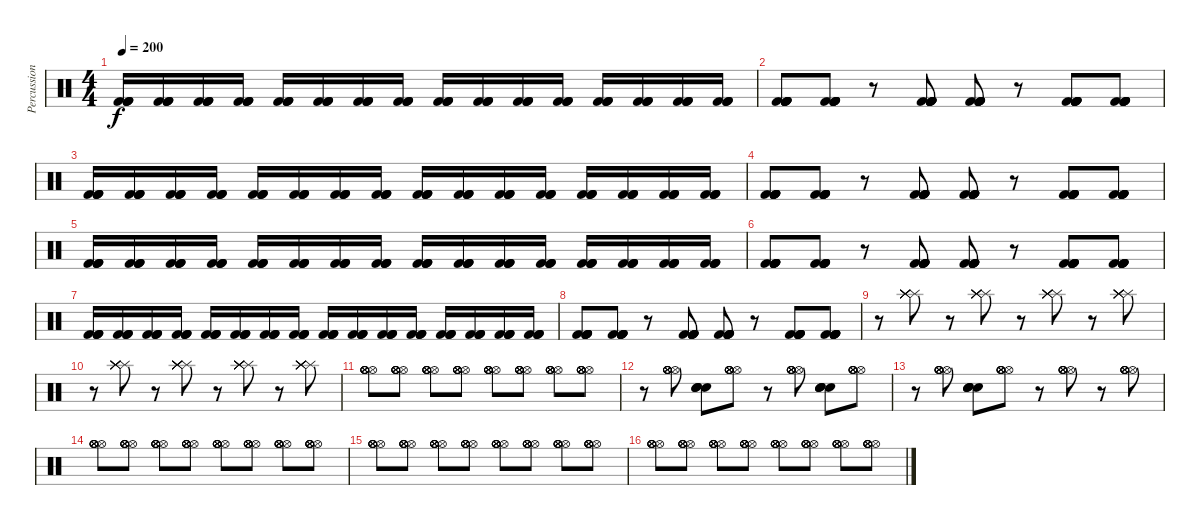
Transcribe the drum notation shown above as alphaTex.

\track ("Percussion" "Percussion") {instrument percussion}
\staff {score}
\articulation defaults
\ts (4 4)
\tempo 200
\clef neutral
\ks c
("Kick (hit) 2" "Kick (hit) 2" "Kick (hit) 2" "Kick (hit) 2").16{dy f} ("Kick (hit) 2" "Kick (hit) 2" "Kick (hit) 2" "Kick (hit) 2").16 ("Kick (hit) 2" "Kick (hit) 2" "Kick (hit) 2" "Kick (hit) 2").16 ("Kick (hit) 2" "Kick (hit) 2" "Kick (hit) 2" "Kick (hit) 2").16 ("Kick (hit) 2" "Kick (hit) 2" "Kick (hit) 2" "Kick (hit) 2").16 ("Kick (hit) 2" "Kick (hit) 2" "Kick (hit) 2" "Kick (hit) 2").16 ("Kick (hit) 2" "Kick (hit) 2" "Kick (hit) 2" "Kick (hit) 2").16 ("Kick (hit) 2" "Kick (hit) 2" "Kick (hit) 2" "Kick (hit) 2").16 ("Kick (hit) 2" "Kick (hit) 2" "Kick (hit) 2" "Kick (hit) 2").16 ("Kick (hit) 2" "Kick (hit) 2" "Kick (hit) 2" "Kick (hit) 2").16 ("Kick (hit) 2" "Kick (hit) 2" "Kick (hit) 2" "Kick (hit) 2").16 ("Kick (hit) 2" "Kick (hit) 2" "Kick (hit) 2" "Kick (hit) 2").16 ("Kick (hit) 2" "Kick (hit) 2" "Kick (hit) 2" "Kick (hit) 2").16 ("Kick (hit) 2" "Kick (hit) 2" "Kick (hit) 2" "Kick (hit) 2").16 ("Kick (hit) 2" "Kick (hit) 2" "Kick (hit) 2" "Kick (hit) 2").16 ("Kick (hit) 2" "Kick (hit) 2" "Kick (hit) 2" "Kick (hit) 2").16 |
("Kick (hit) 2" "Kick (hit) 2" "Kick (hit) 2" "Kick (hit) 2" "Kick (hit) 2" "Kick (hit) 2").8 ("Kick (hit) 2" "Kick (hit) 2" "Kick (hit) 2" "Kick (hit) 2" "Kick (hit) 2" "Kick (hit) 2").8 r.8 ("Kick (hit) 2" "Kick (hit) 2" "Kick (hit) 2" "Kick (hit) 2" "Kick (hit) 2" "Kick (hit) 2").8 ("Kick (hit) 2" "Kick (hit) 2" "Kick (hit) 2" "Kick (hit) 2" "Kick (hit) 2" "Kick (hit) 2").8 r.8 ("Kick (hit) 2" "Kick (hit) 2" "Kick (hit) 2" "Kick (hit) 2" "Kick (hit) 2" "Kick (hit) 2").8 ("Kick (hit) 2" "Kick (hit) 2" "Kick (hit) 2" "Kick (hit) 2" "Kick (hit) 2" "Kick (hit) 2").8 |
("Kick (hit) 2" "Kick (hit) 2" "Kick (hit) 2" "Kick (hit) 2").16 ("Kick (hit) 2" "Kick (hit) 2" "Kick (hit) 2" "Kick (hit) 2").16 ("Kick (hit) 2" "Kick (hit) 2" "Kick (hit) 2" "Kick (hit) 2").16 ("Kick (hit) 2" "Kick (hit) 2" "Kick (hit) 2" "Kick (hit) 2").16 ("Kick (hit) 2" "Kick (hit) 2" "Kick (hit) 2" "Kick (hit) 2").16 ("Kick (hit) 2" "Kick (hit) 2" "Kick (hit) 2" "Kick (hit) 2").16 ("Kick (hit) 2" "Kick (hit) 2" "Kick (hit) 2" "Kick (hit) 2").16 ("Kick (hit) 2" "Kick (hit) 2" "Kick (hit) 2" "Kick (hit) 2").16 ("Kick (hit) 2" "Kick (hit) 2" "Kick (hit) 2" "Kick (hit) 2").16 ("Kick (hit) 2" "Kick (hit) 2" "Kick (hit) 2" "Kick (hit) 2").16 ("Kick (hit) 2" "Kick (hit) 2" "Kick (hit) 2" "Kick (hit) 2").16 ("Kick (hit) 2" "Kick (hit) 2" "Kick (hit) 2" "Kick (hit) 2").16 ("Kick (hit) 2" "Kick (hit) 2" "Kick (hit) 2" "Kick (hit) 2").16 ("Kick (hit) 2" "Kick (hit) 2" "Kick (hit) 2" "Kick (hit) 2").16 ("Kick (hit) 2" "Kick (hit) 2" "Kick (hit) 2" "Kick (hit) 2").16 ("Kick (hit) 2" "Kick (hit) 2" "Kick (hit) 2" "Kick (hit) 2").16 |
("Kick (hit) 2" "Kick (hit) 2" "Kick (hit) 2" "Kick (hit) 2" "Kick (hit) 2" "Kick (hit) 2").8 ("Kick (hit) 2" "Kick (hit) 2" "Kick (hit) 2" "Kick (hit) 2" "Kick (hit) 2" "Kick (hit) 2").8 r.8 ("Kick (hit) 2" "Kick (hit) 2" "Kick (hit) 2" "Kick (hit) 2" "Kick (hit) 2" "Kick (hit) 2").8 ("Kick (hit) 2" "Kick (hit) 2" "Kick (hit) 2" "Kick (hit) 2" "Kick (hit) 2" "Kick (hit) 2").8 r.8 ("Kick (hit) 2" "Kick (hit) 2" "Kick (hit) 2" "Kick (hit) 2" "Kick (hit) 2" "Kick (hit) 2").8 ("Kick (hit) 2" "Kick (hit) 2" "Kick (hit) 2" "Kick (hit) 2" "Kick (hit) 2" "Kick (hit) 2").8 |
("Kick (hit) 2" "Kick (hit) 2" "Kick (hit) 2" "Kick (hit) 2").16 ("Kick (hit) 2" "Kick (hit) 2" "Kick (hit) 2" "Kick (hit) 2").16 ("Kick (hit) 2" "Kick (hit) 2" "Kick (hit) 2" "Kick (hit) 2").16 ("Kick (hit) 2" "Kick (hit) 2" "Kick (hit) 2" "Kick (hit) 2").16 ("Kick (hit) 2" "Kick (hit) 2" "Kick (hit) 2" "Kick (hit) 2").16 ("Kick (hit) 2" "Kick (hit) 2" "Kick (hit) 2" "Kick (hit) 2").16 ("Kick (hit) 2" "Kick (hit) 2" "Kick (hit) 2" "Kick (hit) 2").16 ("Kick (hit) 2" "Kick (hit) 2" "Kick (hit) 2" "Kick (hit) 2").16 ("Kick (hit) 2" "Kick (hit) 2" "Kick (hit) 2" "Kick (hit) 2").16 ("Kick (hit) 2" "Kick (hit) 2" "Kick (hit) 2" "Kick (hit) 2").16 ("Kick (hit) 2" "Kick (hit) 2" "Kick (hit) 2" "Kick (hit) 2").16 ("Kick (hit) 2" "Kick (hit) 2" "Kick (hit) 2" "Kick (hit) 2").16 ("Kick (hit) 2" "Kick (hit) 2" "Kick (hit) 2" "Kick (hit) 2").16 ("Kick (hit) 2" "Kick (hit) 2" "Kick (hit) 2" "Kick (hit) 2").16 ("Kick (hit) 2" "Kick (hit) 2" "Kick (hit) 2" "Kick (hit) 2").16 ("Kick (hit) 2" "Kick (hit) 2" "Kick (hit) 2" "Kick (hit) 2").16 |
("Kick (hit) 2" "Kick (hit) 2" "Kick (hit) 2" "Kick (hit) 2" "Kick (hit) 2" "Kick (hit) 2").8 ("Kick (hit) 2" "Kick (hit) 2" "Kick (hit) 2" "Kick (hit) 2" "Kick (hit) 2" "Kick (hit) 2").8 r.8 ("Kick (hit) 2" "Kick (hit) 2" "Kick (hit) 2" "Kick (hit) 2" "Kick (hit) 2" "Kick (hit) 2").8 ("Kick (hit) 2" "Kick (hit) 2" "Kick (hit) 2" "Kick (hit) 2" "Kick (hit) 2" "Kick (hit) 2").8 r.8 ("Kick (hit) 2" "Kick (hit) 2" "Kick (hit) 2" "Kick (hit) 2" "Kick (hit) 2" "Kick (hit) 2").8 ("Kick (hit) 2" "Kick (hit) 2" "Kick (hit) 2" "Kick (hit) 2" "Kick (hit) 2" "Kick (hit) 2").8 |
("Kick (hit) 2" "Kick (hit) 2" "Kick (hit) 2" "Kick (hit) 2").16 ("Kick (hit) 2" "Kick (hit) 2" "Kick (hit) 2" "Kick (hit) 2").16 ("Kick (hit) 2" "Kick (hit) 2" "Kick (hit) 2" "Kick (hit) 2").16 ("Kick (hit) 2" "Kick (hit) 2" "Kick (hit) 2" "Kick (hit) 2").16 ("Kick (hit) 2" "Kick (hit) 2" "Kick (hit) 2" "Kick (hit) 2").16 ("Kick (hit) 2" "Kick (hit) 2" "Kick (hit) 2" "Kick (hit) 2").16 ("Kick (hit) 2" "Kick (hit) 2" "Kick (hit) 2" "Kick (hit) 2").16 ("Kick (hit) 2" "Kick (hit) 2" "Kick (hit) 2" "Kick (hit) 2").16 ("Kick (hit) 2" "Kick (hit) 2" "Kick (hit) 2" "Kick (hit) 2").16 ("Kick (hit) 2" "Kick (hit) 2" "Kick (hit) 2" "Kick (hit) 2").16 ("Kick (hit) 2" "Kick (hit) 2" "Kick (hit) 2" "Kick (hit) 2").16 ("Kick (hit) 2" "Kick (hit) 2" "Kick (hit) 2" "Kick (hit) 2").16 ("Kick (hit) 2" "Kick (hit) 2" "Kick (hit) 2" "Kick (hit) 2").16 ("Kick (hit) 2" "Kick (hit) 2" "Kick (hit) 2" "Kick (hit) 2").16 ("Kick (hit) 2" "Kick (hit) 2" "Kick (hit) 2" "Kick (hit) 2").16 ("Kick (hit) 2" "Kick (hit) 2" "Kick (hit) 2" "Kick (hit) 2").16 |
("Kick (hit) 2" "Kick (hit) 2" "Kick (hit) 2" "Kick (hit) 2" "Kick (hit) 2" "Kick (hit) 2").8 ("Kick (hit) 2" "Kick (hit) 2" "Kick (hit) 2" "Kick (hit) 2" "Kick (hit) 2" "Kick (hit) 2").8 r.8 ("Kick (hit) 2" "Kick (hit) 2" "Kick (hit) 2" "Kick (hit) 2" "Kick (hit) 2" "Kick (hit) 2").8 ("Kick (hit) 2" "Kick (hit) 2" "Kick (hit) 2" "Kick (hit) 2" "Kick (hit) 2" "Kick (hit) 2").8 r.8 ("Kick (hit) 2" "Kick (hit) 2" "Kick (hit) 2" "Kick (hit) 2" "Kick (hit) 2" "Kick (hit) 2").8 ("Kick (hit) 2" "Kick (hit) 2" "Kick (hit) 2" "Kick (hit) 2" "Kick (hit) 2" "Kick (hit) 2").8 |
r.8 ("Splash (hit)" "Splash (hit)" "Splash (hit)" "Splash (hit)" "Splash (hit)" "Splash (hit)").8 r.8 ("Splash (hit)" "Splash (hit)" "Splash (hit)" "Splash (hit)" "Splash (hit)" "Splash (hit)").8 r.8 ("Splash (hit)" "Splash (hit)" "Splash (hit)" "Splash (hit)" "Splash (hit)" "Splash (hit)").8 r.8 ("Splash (hit)" "Splash (hit)" "Splash (hit)" "Splash (hit)" "Splash (hit)" "Splash (hit)").8 |
r.8 ("Splash (hit)" "Splash (hit)" "Splash (hit)" "Splash (hit)" "Splash (hit)" "Splash (hit)").8 r.8 ("Splash (hit)" "Splash (hit)" "Splash (hit)" "Splash (hit)" "Splash (hit)" "Splash (hit)").8 r.8 ("Splash (hit)" "Splash (hit)" "Splash (hit)" "Splash (hit)" "Splash (hit)" "Splash (hit)").8 r.8 ("Splash (hit)" "Splash (hit)" "Splash (hit)" "Splash (hit)" "Splash (hit)" "Splash (hit)").8 |
("Hi-Hat (open)" "Hi-Hat (open)" "Hi-Hat (open)" "Hi-Hat (open)" "Hi-Hat (open)" "Hi-Hat (open)").8 ("Hi-Hat (open)" "Hi-Hat (open)" "Hi-Hat (open)" "Hi-Hat (open)" "Hi-Hat (open)" "Hi-Hat (open)").8 ("Hi-Hat (open)" "Hi-Hat (open)" "Hi-Hat (open)" "Hi-Hat (open)" "Hi-Hat (open)" "Hi-Hat (open)").8 ("Hi-Hat (open)" "Hi-Hat (open)" "Hi-Hat (open)" "Hi-Hat (open)" "Hi-Hat (open)" "Hi-Hat (open)").8 ("Hi-Hat (open)" "Hi-Hat (open)" "Hi-Hat (open)" "Hi-Hat (open)" "Hi-Hat (open)" "Hi-Hat (open)").8 ("Hi-Hat (open)" "Hi-Hat (open)" "Hi-Hat (open)" "Hi-Hat (open)" "Hi-Hat (open)" "Hi-Hat (open)").8 ("Hi-Hat (open)" "Hi-Hat (open)" "Hi-Hat (open)" "Hi-Hat (open)" "Hi-Hat (open)" "Hi-Hat (open)").8 ("Hi-Hat (open)" "Hi-Hat (open)" "Hi-Hat (open)" "Hi-Hat (open)" "Hi-Hat (open)" "Hi-Hat (open)").8 |
r.8 ("Hi-Hat (open)" "Hi-Hat (open)" "Hi-Hat (open)" "Hi-Hat (open)" "Hi-Hat (open)" "Hi-Hat (open)").8 ("Snare (hit) 2" "Snare (hit) 2" "Snare (hit) 2" "Snare (hit) 2").8 ("Hi-Hat (open)" "Hi-Hat (open)" "Hi-Hat (open)" "Hi-Hat (open)" "Hi-Hat (open)" "Hi-Hat (open)").8 r.8 ("Hi-Hat (open)" "Hi-Hat (open)" "Hi-Hat (open)" "Hi-Hat (open)" "Hi-Hat (open)" "Hi-Hat (open)").8 ("Snare (hit) 2" "Snare (hit) 2" "Snare (hit) 2" "Snare (hit) 2").8 ("Hi-Hat (open)" "Hi-Hat (open)" "Hi-Hat (open)" "Hi-Hat (open)" "Hi-Hat (open)" "Hi-Hat (open)").8 |
r.8 ("Hi-Hat (open)" "Hi-Hat (open)" "Hi-Hat (open)" "Hi-Hat (open)" "Hi-Hat (open)" "Hi-Hat (open)").8 ("Snare (hit) 2" "Snare (hit) 2" "Snare (hit) 2" "Snare (hit) 2").8 ("Hi-Hat (open)" "Hi-Hat (open)" "Hi-Hat (open)" "Hi-Hat (open)" "Hi-Hat (open)" "Hi-Hat (open)").8 r.8 ("Hi-Hat (open)" "Hi-Hat (open)" "Hi-Hat (open)" "Hi-Hat (open)" "Hi-Hat (open)" "Hi-Hat (open)").8 r.8 ("Hi-Hat (open)" "Hi-Hat (open)" "Hi-Hat (open)" "Hi-Hat (open)" "Hi-Hat (open)" "Hi-Hat (open)").8 |
("Hi-Hat (open)" "Hi-Hat (open)" "Hi-Hat (open)" "Hi-Hat (open)" "Hi-Hat (open)" "Hi-Hat (open)").8 ("Hi-Hat (open)" "Hi-Hat (open)" "Hi-Hat (open)" "Hi-Hat (open)" "Hi-Hat (open)" "Hi-Hat (open)").8 ("Hi-Hat (open)" "Hi-Hat (open)" "Hi-Hat (open)" "Hi-Hat (open)" "Hi-Hat (open)" "Hi-Hat (open)").8 ("Hi-Hat (open)" "Hi-Hat (open)" "Hi-Hat (open)" "Hi-Hat (open)" "Hi-Hat (open)" "Hi-Hat (open)").8 ("Hi-Hat (open)" "Hi-Hat (open)" "Hi-Hat (open)" "Hi-Hat (open)" "Hi-Hat (open)" "Hi-Hat (open)").8 ("Hi-Hat (open)" "Hi-Hat (open)" "Hi-Hat (open)" "Hi-Hat (open)" "Hi-Hat (open)" "Hi-Hat (open)").8 ("Hi-Hat (open)" "Hi-Hat (open)" "Hi-Hat (open)" "Hi-Hat (open)" "Hi-Hat (open)" "Hi-Hat (open)").8 ("Hi-Hat (open)" "Hi-Hat (open)" "Hi-Hat (open)" "Hi-Hat (open)" "Hi-Hat (open)" "Hi-Hat (open)").8 |
("Hi-Hat (open)" "Hi-Hat (open)" "Hi-Hat (open)" "Hi-Hat (open)" "Hi-Hat (open)" "Hi-Hat (open)").8 ("Hi-Hat (open)" "Hi-Hat (open)" "Hi-Hat (open)" "Hi-Hat (open)" "Hi-Hat (open)" "Hi-Hat (open)").8 ("Hi-Hat (open)" "Hi-Hat (open)" "Hi-Hat (open)" "Hi-Hat (open)" "Hi-Hat (open)" "Hi-Hat (open)").8 ("Hi-Hat (open)" "Hi-Hat (open)" "Hi-Hat (open)" "Hi-Hat (open)" "Hi-Hat (open)" "Hi-Hat (open)").8 ("Hi-Hat (open)" "Hi-Hat (open)" "Hi-Hat (open)" "Hi-Hat (open)" "Hi-Hat (open)" "Hi-Hat (open)").8 ("Hi-Hat (open)" "Hi-Hat (open)" "Hi-Hat (open)" "Hi-Hat (open)" "Hi-Hat (open)" "Hi-Hat (open)").8 ("Hi-Hat (open)" "Hi-Hat (open)" "Hi-Hat (open)" "Hi-Hat (open)" "Hi-Hat (open)" "Hi-Hat (open)").8 ("Hi-Hat (open)" "Hi-Hat (open)" "Hi-Hat (open)" "Hi-Hat (open)" "Hi-Hat (open)" "Hi-Hat (open)").8 |
("Hi-Hat (open)" "Hi-Hat (open)" "Hi-Hat (open)" "Hi-Hat (open)" "Hi-Hat (open)" "Hi-Hat (open)").8 ("Hi-Hat (open)" "Hi-Hat (open)" "Hi-Hat (open)" "Hi-Hat (open)" "Hi-Hat (open)" "Hi-Hat (open)").8 ("Hi-Hat (open)" "Hi-Hat (open)" "Hi-Hat (open)" "Hi-Hat (open)" "Hi-Hat (open)" "Hi-Hat (open)").8 ("Hi-Hat (open)" "Hi-Hat (open)" "Hi-Hat (open)" "Hi-Hat (open)" "Hi-Hat (open)" "Hi-Hat (open)").8 ("Hi-Hat (open)" "Hi-Hat (open)" "Hi-Hat (open)" "Hi-Hat (open)" "Hi-Hat (open)" "Hi-Hat (open)").8 ("Hi-Hat (open)" "Hi-Hat (open)" "Hi-Hat (open)" "Hi-Hat (open)" "Hi-Hat (open)" "Hi-Hat (open)").8 ("Hi-Hat (open)" "Hi-Hat (open)" "Hi-Hat (open)" "Hi-Hat (open)" "Hi-Hat (open)" "Hi-Hat (open)").8 ("Hi-Hat (open)" "Hi-Hat (open)" "Hi-Hat (open)" "Hi-Hat (open)" "Hi-Hat (open)" "Hi-Hat (open)").8
